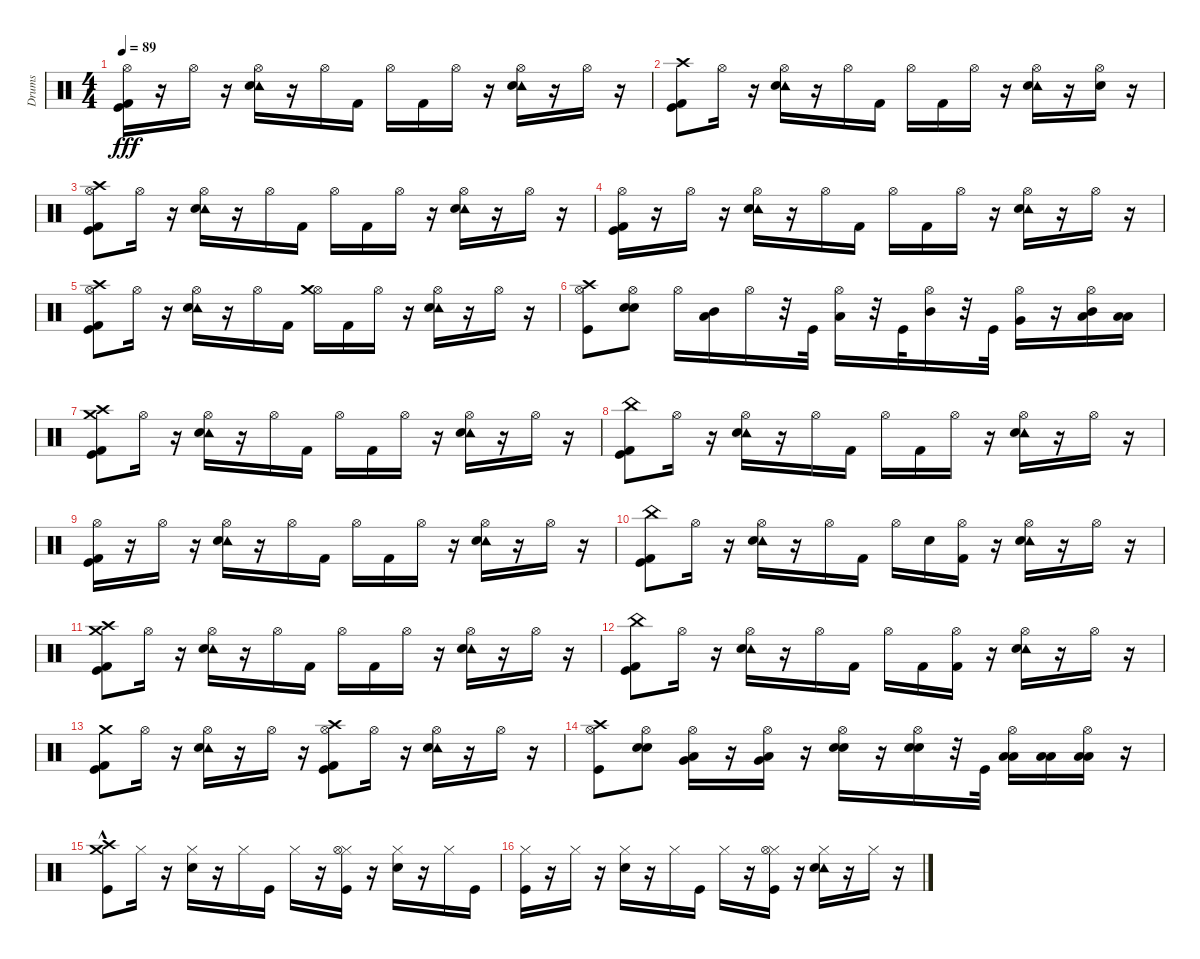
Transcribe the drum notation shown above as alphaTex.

\track ("Drums" "Drums") {instrument percussion}
\staff {score}
\articulation defaults
\ts (4 4)
\tempo 89
\clef neutral
\ks c
("Kick (hit) 2" "Kick (hit)" "Hi-Hat (open)").16{dy fff} r.16 "Hi-Hat (open)".16 r.16 ("Hi-Hat (open)" "Tambourine (hit)" "Snare (hit) 2").16 r.16 "Hi-Hat (open)".16 "Kick (hit) 2".16 "Hi-Hat (open)".16 "Kick (hit) 2".16 "Hi-Hat (open)".16 r.16 ("Hi-Hat (open)" "Tambourine (hit)" "Snare (hit) 2").16 r.16 "Hi-Hat (open)".16 r.16 |
("Kick (hit) 2" "Kick (hit)" "Crash high (hit)").8 "Hi-Hat (open)".16 r.16 ("Hi-Hat (open)" "Tambourine (hit)" "Snare (hit) 2").16 r.16 "Hi-Hat (open)".16 "Kick (hit) 2".16 "Hi-Hat (open)".16 "Kick (hit) 2".16 "Hi-Hat (open)".16 r.16 ("Hi-Hat (open)" "Tambourine (hit)" "Snare (hit) 2").16 r.16 ("Hi-Hat (open)" "Snare (hit) 2").16 r.16 |
("Kick (hit) 2" "Kick (hit)" "Hi-Hat (open)" "Crash high (hit)").8 "Hi-Hat (open)".16 r.16 ("Hi-Hat (open)" "Tambourine (hit)" "Snare (hit) 2").16 r.16 "Hi-Hat (open)".16 "Kick (hit) 2".16 "Hi-Hat (open)".16 "Kick (hit) 2".16 "Hi-Hat (open)".16 r.16 ("Hi-Hat (open)" "Tambourine (hit)" "Snare (hit) 2").16 r.16 "Hi-Hat (open)".16 r.16 |
("Hi-Hat (open)" "Kick (hit)" "Kick (hit) 2").16 r.16 "Hi-Hat (open)".16 r.16 ("Hi-Hat (open)" "Tambourine (hit)" "Snare (hit) 2").16 r.16 "Hi-Hat (open)".16 "Kick (hit) 2".16 "Hi-Hat (open)".16 "Kick (hit) 2".16 "Hi-Hat (open)".16 r.16 ("Hi-Hat (open)" "Tambourine (hit)" "Snare (hit) 2").16 r.16 "Hi-Hat (open)".16 r.16 |
("Kick (hit) 2" "Kick (hit)" "Hi-Hat (open)" "Crash high (hit)").8 "Hi-Hat (open)".16 r.16 ("Hi-Hat (open)" "Tambourine (hit)" "Snare (hit) 2").16 r.16 "Hi-Hat (open)".16 "Kick (hit) 2".16 ("Hi-Hat (open)" "Crash medium (hit)").16 "Kick (hit) 2".16 "Hi-Hat (open)".16 r.16 ("Hi-Hat (open)" "Tambourine (hit)" "Snare (hit) 2").16 r.16 "Hi-Hat (open)".16 r.16 |
("Kick (hit)" "Hi-Hat (open)" "Crash high (hit)").8 ("Hi-Hat (open)" "Snare (hit) 2" "Snare (hit) 2").8 "Hi-Hat (open)".16 ("Low Floor Tom (hit)" "Mid Tom (hit)").16 "Hi-Hat (open)".16 r.32 "Kick (hit)".32 ("Hi-Hat (open)" "Low Tom (hit)").16 r.32 "Kick (hit)".32 ("Hi-Hat (open)" "Mid Tom (hit)").16 r.32 "Kick (hit)".32 ("Very Low Tom (hit)" "Hi-Hat (open)").16 r.16 ("Hi-Hat (open)" "Low Floor Tom (hit)" "Mid Tom (hit)").16 ("Low Floor Tom (hit)" "Low Tom (hit)").16 |
("Crash medium (hit)" "Crash high (hit)" "Kick (hit) 2" "Kick (hit)").8 "Hi-Hat (open)".16 r.16 ("Hi-Hat (open)" "Tambourine (hit)" "Snare (hit) 2").16 r.16 "Hi-Hat (open)".16 "Kick (hit) 2".16 "Hi-Hat (open)".16 "Kick (hit) 2".16 "Hi-Hat (open)".16 r.16 ("Hi-Hat (open)" "Tambourine (hit)" "Snare (hit) 2").16 r.16 "Hi-Hat (open)".16 r.16 |
("Kick (hit)" "Kick (hit) 2" "China (hit)").8 "Hi-Hat (open)".16 r.16 ("Hi-Hat (open)" "Tambourine (hit)" "Snare (hit) 2").16 r.16 "Hi-Hat (open)".16 "Kick (hit) 2".16 "Hi-Hat (open)".16 "Kick (hit) 2".16 "Hi-Hat (open)".16 r.16 ("Hi-Hat (open)" "Tambourine (hit)" "Snare (hit) 2").16 r.16 "Hi-Hat (open)".16 r.16 |
("Kick (hit) 2" "Kick (hit)" "Hi-Hat (open)").16 r.16 "Hi-Hat (open)".16 r.16 ("Hi-Hat (open)" "Tambourine (hit)" "Snare (hit) 2").16 r.16 "Hi-Hat (open)".16 "Kick (hit) 2".16 "Hi-Hat (open)".16 "Kick (hit) 2".16 "Hi-Hat (open)".16 r.16 ("Hi-Hat (open)" "Tambourine (hit)" "Snare (hit) 2").16 r.16 "Hi-Hat (open)".16 r.16 |
("Kick (hit)" "Kick (hit) 2" "China (hit)").8 "Hi-Hat (open)".16 r.16 ("Hi-Hat (open)" "Tambourine (hit)" "Snare (hit) 2").16 r.16 "Hi-Hat (open)".16 "Kick (hit) 2".16 "Hi-Hat (open)".16 "Snare (hit) 2".16 ("Hi-Hat (open)" "Kick (hit) 2").16 r.16 ("Hi-Hat (open)" "Tambourine (hit)" "Snare (hit) 2").16 r.16 "Hi-Hat (open)".16 r.16 |
("Kick (hit)" "Kick (hit) 2" "Crash high (hit)" "Crash medium (hit)").8 "Hi-Hat (open)".16 r.16 ("Hi-Hat (open)" "Tambourine (hit)" "Snare (hit) 2").16 r.16 "Hi-Hat (open)".16 "Kick (hit) 2".16 "Hi-Hat (open)".16 "Kick (hit) 2".16 "Hi-Hat (open)".16 r.16 ("Hi-Hat (open)" "Tambourine (hit)" "Snare (hit) 2").16 r.16 "Hi-Hat (open)".16 r.16 |
("Kick (hit)" "Kick (hit) 2" "China (hit)").8 "Hi-Hat (open)".16 r.16 ("Hi-Hat (open)" "Tambourine (hit)" "Snare (hit) 2").16 r.16 "Hi-Hat (open)".16 "Kick (hit) 2".16 "Hi-Hat (open)".16 "Kick (hit) 2".16 ("Hi-Hat (open)" "Kick (hit) 2").16 r.16 ("Hi-Hat (open)" "Tambourine (hit)" "Snare (hit) 2").16 r.16 "Hi-Hat (open)".16 r.16 |
("Kick (hit) 2" "Kick (hit)" "Crash medium (hit)").8 "Hi-Hat (open)".16 r.16 ("Hi-Hat (open)" "Tambourine (hit)" "Snare (hit) 2").16 r.16 "Hi-Hat (open)".16 r.16 ("Hi-Hat (open)" "Crash high (hit)" "Kick (hit) 2" "Kick (hit)").8 "Hi-Hat (open)".16 r.16 ("Hi-Hat (open)" "Tambourine (hit)" "Snare (hit) 2").16 r.16 "Hi-Hat (open)".16 r.16 |
("Crash high (hit)" "Hi-Hat (open)" "Kick (hit)").8 ("Hi-Hat (open)" "Snare (hit) 2" "Snare (hit) 2").8 ("Hi-Hat (open)" "Low Floor Tom (hit)" "Very Low Tom (hit)").16 r.16 ("Hi-Hat (open)" "Low Floor Tom (hit)" "Very Low Tom (hit)").16 r.16 ("Hi-Hat (open)" "Snare (hit) 2" "Snare (hit) 2").16 r.16 ("Hi-Hat (open)" "Snare (hit) 2" "Snare (hit) 2").16 r.32 "Kick (hit)".32 ("Hi-Hat (open)" "Low Floor Tom (hit)" "Low Tom (hit)").16 ("Low Floor Tom (hit)" "Low Tom (hit)").16 ("Hi-Hat (open)" "Low Floor Tom (hit)" "Low Tom (hit)").16 r.16 |
("Kick (hit)" "Crash high (hit)"{hac} "Crash medium (hit)"{hac}).8 "Hi-Hat (closed)".16 r.16 ("Hi-Hat (closed)" "Snare (hit) 2").16 r.16 "Hi-Hat (closed)".16 "Kick (hit)".16 "Hi-Hat (closed)".16 r.16 ("Hi-Hat (closed)" "Kick (hit)" "Hi-Hat (open)").16 r.16 ("Hi-Hat (closed)" "Snare (hit) 2").16 r.16 "Hi-Hat (closed)".16 "Kick (hit)".16 |
("Kick (hit)" "Hi-Hat (closed)").16 r.16 "Hi-Hat (closed)".16 r.16 ("Hi-Hat (closed)" "Snare (hit) 2").16 r.16 "Hi-Hat (closed)".16 "Kick (hit)".16 "Hi-Hat (closed)".16 r.16 ("Kick (hit)" "Hi-Hat (closed)" "Hi-Hat (open)").16 r.16 ("Hi-Hat (closed)" "Tambourine (hit)" "Snare (hit) 2").16 r.16 "Hi-Hat (closed)".16 r.16
